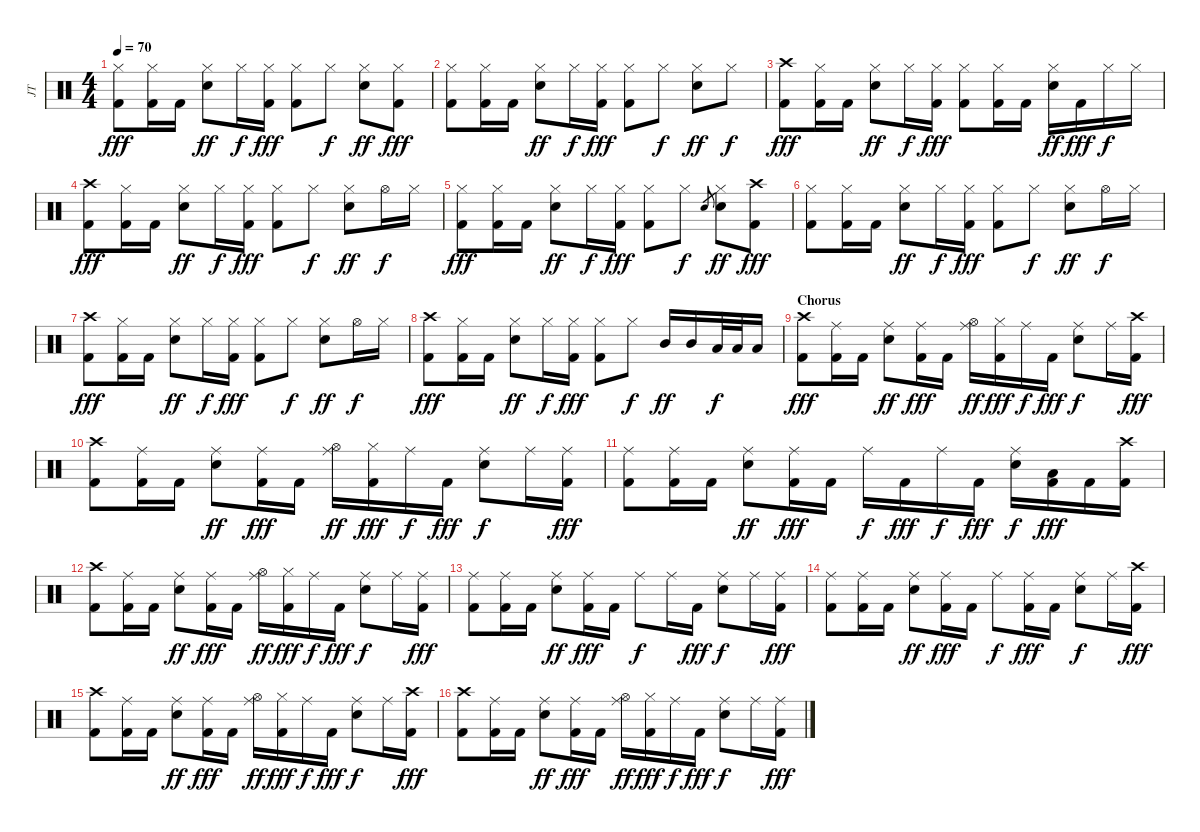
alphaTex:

\track ("JT" "JT") {instrument percussion}
\staff {score}
\articulation defaults
\ts (4 4)
\tempo 70
\clef neutral
\ks c
("Hi-Hat (closed)" "Kick (hit) 2").8{dy fff} ("Hi-Hat (closed)" "Kick (hit) 2").16 "Kick (hit) 2".16 ("Hi-Hat (closed)" "Electric Snare (hit)").8{dy ff} "Hi-Hat (closed)".16{dy f} ("Hi-Hat (closed)" "Kick (hit) 2").16{dy fff} ("Hi-Hat (closed)" "Kick (hit) 2").8 "Hi-Hat (closed)".8{dy f} ("Hi-Hat (closed)" "Electric Snare (hit)").8{dy ff} ("Hi-Hat (closed)" "Kick (hit) 2").8{dy fff} |
("Hi-Hat (closed)" "Kick (hit) 2").8 ("Hi-Hat (closed)" "Kick (hit) 2").16 "Kick (hit) 2".16 ("Hi-Hat (closed)" "Electric Snare (hit)").8{dy ff} "Hi-Hat (closed)".16{dy f} ("Hi-Hat (closed)" "Kick (hit) 2").16{dy fff} ("Hi-Hat (closed)" "Kick (hit) 2").8 "Hi-Hat (closed)".8{dy f} ("Hi-Hat (closed)" "Electric Snare (hit)").8{dy ff} "Hi-Hat (closed)".8{dy f} |
("Crash high (hit)" "Kick (hit) 2").8{dy fff} ("Hi-Hat (closed)" "Kick (hit) 2").16 "Kick (hit) 2".16 ("Hi-Hat (closed)" "Electric Snare (hit)").8{dy ff} "Hi-Hat (closed)".16{dy f} ("Hi-Hat (closed)" "Kick (hit) 2").16{dy fff} ("Hi-Hat (closed)" "Kick (hit) 2").8 ("Hi-Hat (closed)" "Kick (hit) 2").16 "Kick (hit) 2".16 ("Hi-Hat (closed)" "Electric Snare (hit)").16{dy ff} "Kick (hit) 2".16{dy fff} "Hi-Hat (closed)".16{dy f} "Hi-Hat (closed)".16 |
("Crash high (hit)" "Kick (hit) 2").8{dy fff} ("Hi-Hat (closed)" "Kick (hit) 2").16 "Kick (hit) 2".16 ("Hi-Hat (closed)" "Electric Snare (hit)").8{dy ff} "Hi-Hat (closed)".16{dy f} ("Hi-Hat (closed)" "Kick (hit) 2").16{dy fff} ("Hi-Hat (closed)" "Kick (hit) 2").8 "Hi-Hat (closed)".8{dy f} ("Hi-Hat (closed)" "Electric Snare (hit)").8{dy ff} "Hi-Hat (open)".16{dy f} "Hi-Hat (closed)".16 |
("Hi-Hat (closed)" "Kick (hit) 2").8{dy fff} ("Hi-Hat (closed)" "Kick (hit) 2").16 "Kick (hit) 2".16 ("Hi-Hat (closed)" "Electric Snare (hit)").8{dy ff} "Hi-Hat (closed)".16{dy f} ("Hi-Hat (closed)" "Kick (hit) 2").16{dy fff} ("Hi-Hat (closed)" "Kick (hit) 2").8 "Hi-Hat (closed)".8{dy f} "Electric Snare (hit)".8{gr} ("Hi-Hat (closed)" "Electric Snare (hit)").8{dy ff} ("Crash high (hit)" "Kick (hit) 2").8{dy fff} |
("Hi-Hat (closed)" "Kick (hit) 2").8 ("Hi-Hat (closed)" "Kick (hit) 2").16 "Kick (hit) 2".16 ("Hi-Hat (closed)" "Electric Snare (hit)").8{dy ff} "Hi-Hat (closed)".16{dy f} ("Hi-Hat (closed)" "Kick (hit) 2").16{dy fff} ("Hi-Hat (closed)" "Kick (hit) 2").8 "Hi-Hat (closed)".8{dy f} ("Hi-Hat (closed)" "Electric Snare (hit)").8{dy ff} "Hi-Hat (open)".16{dy f} "Hi-Hat (closed)".16 |
("Crash high (hit)" "Kick (hit) 2").8{dy fff} ("Hi-Hat (closed)" "Kick (hit) 2").16 "Kick (hit) 2".16 ("Hi-Hat (closed)" "Electric Snare (hit)").8{dy ff} "Hi-Hat (closed)".16{dy f} ("Hi-Hat (closed)" "Kick (hit) 2").16{dy fff} ("Hi-Hat (closed)" "Kick (hit) 2").8 "Hi-Hat (closed)".8{dy f} ("Hi-Hat (closed)" "Electric Snare (hit)").8{dy ff} "Hi-Hat (open)".16{dy f} "Hi-Hat (closed)".16 |
("Crash high (hit)" "Kick (hit) 2").8{dy fff} ("Hi-Hat (closed)" "Kick (hit) 2").16 "Kick (hit) 2".16 ("Hi-Hat (closed)" "Electric Snare (hit)").8{dy ff} "Hi-Hat (closed)".16{dy f} ("Hi-Hat (closed)" "Kick (hit) 2").16{dy fff} ("Hi-Hat (closed)" "Kick (hit) 2").8 "Hi-Hat (closed)".8{dy f} "Mid Tom (hit)".16{dy ff} "Mid Tom (hit)".16 "Low Floor Tom (hit)".32{dy f} "Low Floor Tom (hit)".32 "Low Tom (hit)".16 |
\section ("" "Chorus")
("Crash high (hit)" "Kick (hit) 2").8{dy fff} ("Ride (middle)" "Kick (hit) 2").16 "Kick (hit) 2".16 ("Ride (middle)" "Electric Snare (hit)").8{dy ff} ("Ride (middle)" "Kick (hit) 2").16{dy fff} "Kick (hit) 2".16 ("Ride (middle)" "Hi-Hat (open)").16{dy ff} ("Hi-Hat (closed)" "Kick (hit) 2").16{dy fff} "Ride (middle)".16{dy f} "Kick (hit) 2".16{dy fff} ("Ride (middle)" "Electric Snare (hit)").8{dy f} "Ride (middle)".16 ("Crash high (hit)" "Kick (hit) 2").16{dy fff} |
("Crash high (hit)" "Kick (hit) 2").8 ("Ride (middle)" "Kick (hit) 2").16 "Kick (hit) 2".16 ("Ride (middle)" "Electric Snare (hit)").8{dy ff} ("Ride (middle)" "Kick (hit) 2").16{dy fff} "Kick (hit) 2".16 ("Ride (middle)" "Hi-Hat (open)").16{dy ff} ("Hi-Hat (closed)" "Kick (hit) 2").16{dy fff} "Ride (middle)".16{dy f} "Kick (hit) 2".16{dy fff} ("Ride (middle)" "Electric Snare (hit)").8{dy f} "Ride (middle)".16 ("Ride (middle)" "Kick (hit) 2").16{dy fff} |
("Ride (middle)" "Kick (hit) 2").8 ("Ride (middle)" "Kick (hit) 2").16 "Kick (hit) 2".16 ("Ride (middle)" "Electric Snare (hit)").8{dy ff} ("Ride (middle)" "Kick (hit) 2").16{dy fff} "Kick (hit) 2".16 "Ride (middle)".16{dy f} "Kick (hit) 2".16{dy fff} "Ride (middle)".16{dy f} "Kick (hit) 2".16{dy fff} ("Ride (middle)" "Electric Snare (hit)").16{dy f} ("Low Tom (hit)" "Kick (hit) 2").16{dy fff} "Kick (hit) 2".16 ("Crash high (hit)" "Kick (hit) 2").16 |
("Crash high (hit)" "Kick (hit) 2").8 ("Ride (middle)" "Kick (hit) 2").16 "Kick (hit) 2".16 ("Ride (middle)" "Electric Snare (hit)").8{dy ff} ("Ride (middle)" "Kick (hit) 2").16{dy fff} "Kick (hit) 2".16 ("Ride (middle)" "Hi-Hat (open)").16{dy ff} ("Hi-Hat (closed)" "Kick (hit) 2").16{dy fff} "Ride (middle)".16{dy f} "Kick (hit) 2".16{dy fff} ("Ride (middle)" "Electric Snare (hit)").8{dy f} "Ride (middle)".16 ("Ride (middle)" "Kick (hit) 2").16{dy fff} |
("Ride (middle)" "Kick (hit) 2").8 ("Ride (middle)" "Kick (hit) 2").16 "Kick (hit) 2".16 ("Ride (middle)" "Electric Snare (hit)").8{dy ff} ("Ride (middle)" "Kick (hit) 2").16{dy fff} "Kick (hit) 2".16 "Ride (middle)".8{dy f} "Ride (middle)".16 "Kick (hit) 2".16{dy fff} ("Ride (middle)" "Electric Snare (hit)").8{dy f} "Ride (middle)".16 ("Ride (middle)" "Kick (hit) 2").16{dy fff} |
("Ride (middle)" "Kick (hit) 2").8 ("Ride (middle)" "Kick (hit) 2").16 "Kick (hit) 2".16 ("Ride (middle)" "Electric Snare (hit)").8{dy ff} ("Ride (middle)" "Kick (hit) 2").16{dy fff} "Kick (hit) 2".16 "Ride (middle)".8{dy f} ("Ride (middle)" "Kick (hit) 2").16{dy fff} "Kick (hit) 2".16 ("Ride (middle)" "Electric Snare (hit)").8{dy f} "Ride (middle)".16 ("Crash high (hit)" "Kick (hit) 2").16{dy fff} |
("Crash high (hit)" "Kick (hit) 2").8 ("Ride (middle)" "Kick (hit) 2").16 "Kick (hit) 2".16 ("Ride (middle)" "Electric Snare (hit)").8{dy ff} ("Ride (middle)" "Kick (hit) 2").16{dy fff} "Kick (hit) 2".16 ("Ride (middle)" "Hi-Hat (open)").16{dy ff} ("Hi-Hat (closed)" "Kick (hit) 2").16{dy fff} "Ride (middle)".16{dy f} "Kick (hit) 2".16{dy fff} ("Ride (middle)" "Electric Snare (hit)").8{dy f} "Ride (middle)".16 ("Crash high (hit)" "Kick (hit) 2").16{dy fff} |
("Crash high (hit)" "Kick (hit) 2").8 ("Ride (middle)" "Kick (hit) 2").16 "Kick (hit) 2".16 ("Ride (middle)" "Electric Snare (hit)").8{dy ff} ("Ride (middle)" "Kick (hit) 2").16{dy fff} "Kick (hit) 2".16 ("Ride (middle)" "Hi-Hat (open)").16{dy ff} ("Hi-Hat (closed)" "Kick (hit) 2").16{dy fff} "Ride (middle)".16{dy f} "Kick (hit) 2".16{dy fff} ("Ride (middle)" "Electric Snare (hit)").8{dy f} "Ride (middle)".16 ("Ride (middle)" "Kick (hit) 2").16{dy fff}
